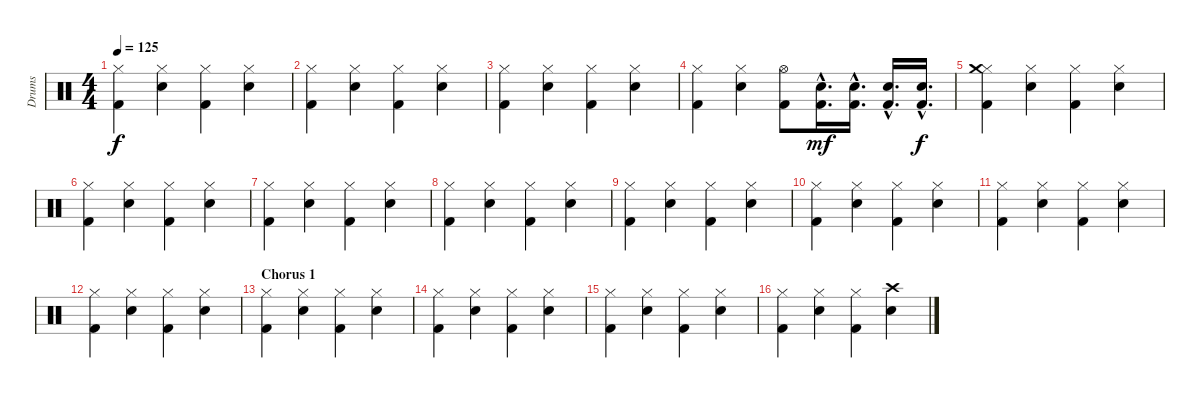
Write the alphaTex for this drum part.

\track ("Drums" "Drums") {instrument percussion}
\staff {score}
\articulation defaults
\ts (4 4)
\tempo 125
\clef neutral
\ks c
("Hi-Hat (closed)" "Kick (hit) 2").4{dy f} ("Hi-Hat (closed)" "Electric Snare (hit)").4 ("Hi-Hat (closed)" "Kick (hit) 2").4 ("Hi-Hat (closed)" "Electric Snare (hit)").4 |
("Hi-Hat (closed)" "Kick (hit) 2").4 ("Hi-Hat (closed)" "Electric Snare (hit)").4 ("Hi-Hat (closed)" "Kick (hit) 2").4 ("Hi-Hat (closed)" "Electric Snare (hit)").4 |
("Hi-Hat (closed)" "Kick (hit) 2").4 ("Hi-Hat (closed)" "Electric Snare (hit)").4 ("Hi-Hat (closed)" "Kick (hit) 2").4 ("Hi-Hat (closed)" "Electric Snare (hit)").4 |
("Hi-Hat (closed)" "Kick (hit) 2").4 ("Hi-Hat (closed)" "Electric Snare (hit)").4 ("Hi-Hat (open)" "Kick (hit) 2").8 ("Electric Snare (hit)"{hac} "Kick (hit) 2"{hac}).16{d dy mf} ("Electric Snare (hit)"{hac} "Kick (hit) 2"{hac}).16{d} ("Electric Snare (hit)"{hac} "Kick (hit) 2"{hac}).16{d} ("Electric Snare (hit)"{hac} "Kick (hit) 2"{hac}).16{d dy f} |
("Hi-Hat (closed)" "Crash medium (hit)" "Kick (hit) 2").4 ("Hi-Hat (closed)" "Electric Snare (hit)").4 ("Hi-Hat (closed)" "Kick (hit) 2").4 ("Hi-Hat (closed)" "Electric Snare (hit)").4 |
("Hi-Hat (closed)" "Kick (hit) 2").4 ("Hi-Hat (closed)" "Electric Snare (hit)").4 ("Hi-Hat (closed)" "Kick (hit) 2").4 ("Hi-Hat (closed)" "Electric Snare (hit)").4 |
("Hi-Hat (closed)" "Kick (hit) 2").4 ("Hi-Hat (closed)" "Electric Snare (hit)").4 ("Hi-Hat (closed)" "Kick (hit) 2").4 ("Hi-Hat (closed)" "Electric Snare (hit)").4 |
("Hi-Hat (closed)" "Kick (hit) 2").4 ("Hi-Hat (closed)" "Electric Snare (hit)").4 ("Hi-Hat (closed)" "Kick (hit) 2").4 ("Hi-Hat (closed)" "Electric Snare (hit)").4 |
("Hi-Hat (closed)" "Kick (hit) 2").4 ("Hi-Hat (closed)" "Electric Snare (hit)").4 ("Hi-Hat (closed)" "Kick (hit) 2").4 ("Hi-Hat (closed)" "Electric Snare (hit)").4 |
("Hi-Hat (closed)" "Kick (hit) 2").4 ("Hi-Hat (closed)" "Electric Snare (hit)").4 ("Hi-Hat (closed)" "Kick (hit) 2").4 ("Hi-Hat (closed)" "Electric Snare (hit)").4 |
("Hi-Hat (closed)" "Kick (hit) 2").4 ("Hi-Hat (closed)" "Electric Snare (hit)").4 ("Hi-Hat (closed)" "Kick (hit) 2").4 ("Hi-Hat (closed)" "Electric Snare (hit)").4 |
("Hi-Hat (closed)" "Kick (hit) 2").4 ("Hi-Hat (closed)" "Electric Snare (hit)").4 ("Hi-Hat (closed)" "Kick (hit) 2").4 ("Hi-Hat (closed)" "Electric Snare (hit)").4 |
\section ("" "Chorus 1")
("Hi-Hat (closed)" "Kick (hit) 2").4 ("Hi-Hat (closed)" "Electric Snare (hit)").4 ("Hi-Hat (closed)" "Kick (hit) 2").4 ("Hi-Hat (closed)" "Electric Snare (hit)").4 |
("Hi-Hat (closed)" "Kick (hit) 2").4 ("Hi-Hat (closed)" "Electric Snare (hit)").4 ("Hi-Hat (closed)" "Kick (hit) 2").4 ("Hi-Hat (closed)" "Electric Snare (hit)").4 |
("Hi-Hat (closed)" "Kick (hit) 2").4 ("Hi-Hat (closed)" "Electric Snare (hit)").4 ("Hi-Hat (closed)" "Kick (hit) 2").4 ("Hi-Hat (closed)" "Electric Snare (hit)").4 |
("Hi-Hat (closed)" "Kick (hit) 2").4 ("Hi-Hat (closed)" "Electric Snare (hit)").4 ("Hi-Hat (closed)" "Kick (hit) 2").4 ("Crash high (hit)" "Electric Snare (hit)").4
